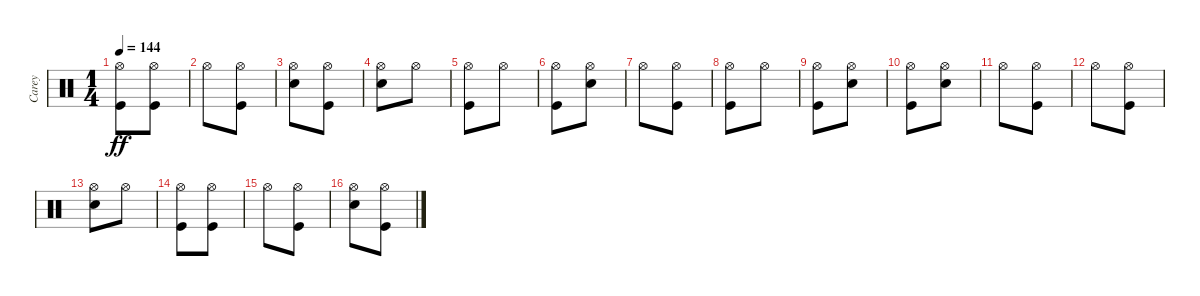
\track ("Carey" "Carey") {instrument percussion}
\staff {score}
\articulation defaults
\ts (1 4)
\tempo 144
\clef neutral
\ks c
("Kick (hit)" "Hi-Hat (open)").8{dy ff} ("Kick (hit)" "Hi-Hat (open)").8 |
"Hi-Hat (open)".8 ("Kick (hit)" "Hi-Hat (open)").8 |
("Snare (hit) 2" "Hi-Hat (open)").8 ("Kick (hit)" "Hi-Hat (open)").8 |
("Snare (hit) 2" "Hi-Hat (open)").8 "Hi-Hat (open)".8 |
("Kick (hit)" "Hi-Hat (open)").8 "Hi-Hat (open)".8 |
("Kick (hit)" "Hi-Hat (open)").8 ("Snare (hit) 2" "Hi-Hat (open)").8 |
"Hi-Hat (open)".8 ("Kick (hit)" "Hi-Hat (open)").8 |
("Kick (hit)" "Hi-Hat (open)").8 "Hi-Hat (open)".8 |
("Kick (hit)" "Hi-Hat (open)").8 ("Snare (hit) 2" "Hi-Hat (open)").8 |
("Kick (hit)" "Hi-Hat (open)").8 ("Snare (hit) 2" "Hi-Hat (open)").8 |
"Hi-Hat (open)".8 ("Kick (hit)" "Hi-Hat (open)").8 |
"Hi-Hat (open)".8 ("Kick (hit)" "Hi-Hat (open)").8 |
("Snare (hit) 2" "Hi-Hat (open)").8 "Hi-Hat (open)".8 |
("Kick (hit)" "Hi-Hat (open)").8 ("Kick (hit)" "Hi-Hat (open)").8 |
"Hi-Hat (open)".8 ("Kick (hit)" "Hi-Hat (open)").8 |
("Snare (hit) 2" "Hi-Hat (open)").8 ("Kick (hit)" "Hi-Hat (open)").8
